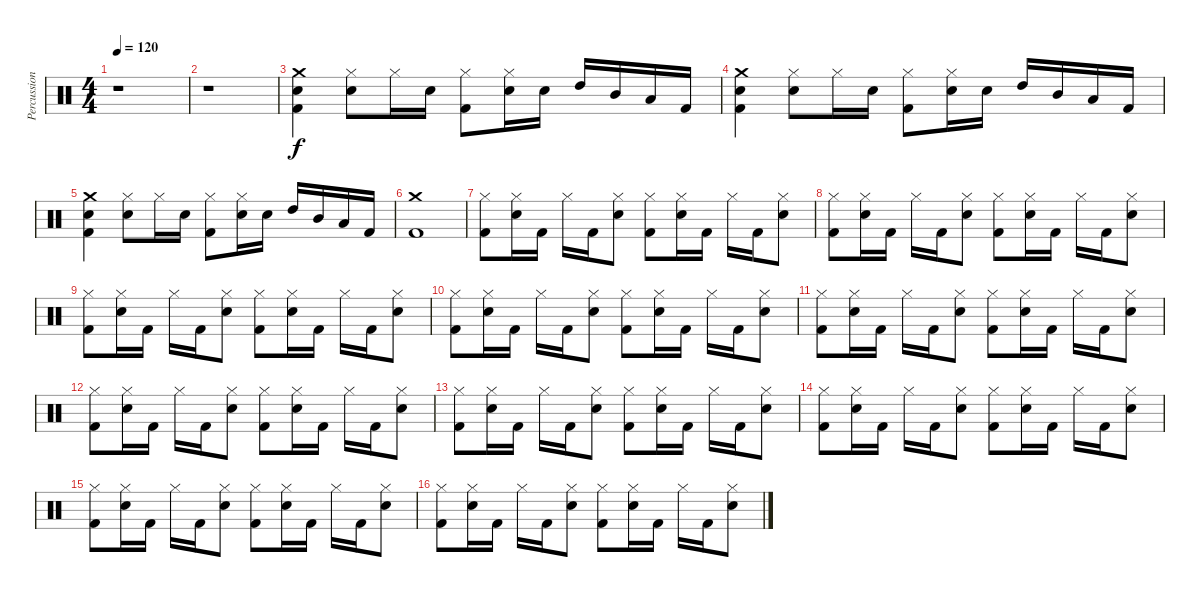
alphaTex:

\track ("Percussions" "Percussion") {instrument percussion}
\staff {score}
\articulation defaults
\ts (4 4)
\tempo 120
\clef neutral
\ks c
r.1{dy f} |
r.1 |
("Crash medium (hit)" "Snare (hit) 2" "Kick (hit) 2").4 ("Hi-Hat (closed)" "Snare (hit) 2").8 "Hi-Hat (closed)".16 "Snare (hit) 2".16 ("Hi-Hat (closed)" "Kick (hit) 2").8 ("Hi-Hat (closed)" "Snare (hit) 2").16 "Snare (hit) 2".16 "High Tom (hit)".16 "Mid Tom (hit)".16 "Low Tom (hit)".16 "Kick (hit) 2".16 |
("Crash medium (hit)" "Snare (hit) 2" "Kick (hit) 2").4 ("Hi-Hat (closed)" "Snare (hit) 2").8 "Hi-Hat (closed)".16 "Snare (hit) 2".16 ("Hi-Hat (closed)" "Kick (hit) 2").8 ("Hi-Hat (closed)" "Snare (hit) 2").16 "Snare (hit) 2".16 "High Tom (hit)".16 "Mid Tom (hit)".16 "Low Tom (hit)".16 "Kick (hit) 2".16 |
("Crash medium (hit)" "Snare (hit) 2" "Kick (hit) 2").4 ("Hi-Hat (closed)" "Snare (hit) 2").8 "Hi-Hat (closed)".16 "Snare (hit) 2".16 ("Hi-Hat (closed)" "Kick (hit) 2").8 ("Hi-Hat (closed)" "Snare (hit) 2").16 "Snare (hit) 2".16 "High Tom (hit)".16 "Mid Tom (hit)".16 "Low Tom (hit)".16 "Kick (hit) 2".16 |
("Crash medium (hit)" "Kick (hit) 2").1 |
("Hi-Hat (closed)" "Kick (hit) 2").8 ("Hi-Hat (closed)" "Snare (hit) 2").16 "Kick (hit) 2".16 "Hi-Hat (closed)".16 "Kick (hit) 2".16 ("Hi-Hat (closed)" "Snare (hit) 2").8 ("Hi-Hat (closed)" "Kick (hit) 2").8 ("Hi-Hat (closed)" "Snare (hit) 2").16 "Kick (hit) 2".16 "Hi-Hat (closed)".16 "Kick (hit) 2".16 ("Hi-Hat (closed)" "Snare (hit) 2").8 |
("Hi-Hat (closed)" "Kick (hit) 2").8 ("Hi-Hat (closed)" "Snare (hit) 2").16 "Kick (hit) 2".16 "Hi-Hat (closed)".16 "Kick (hit) 2".16 ("Hi-Hat (closed)" "Snare (hit) 2").8 ("Hi-Hat (closed)" "Kick (hit) 2").8 ("Hi-Hat (closed)" "Snare (hit) 2").16 "Kick (hit) 2".16 "Hi-Hat (closed)".16 "Kick (hit) 2".16 ("Hi-Hat (closed)" "Snare (hit) 2").8 |
("Hi-Hat (closed)" "Kick (hit) 2").8 ("Hi-Hat (closed)" "Snare (hit) 2").16 "Kick (hit) 2".16 "Hi-Hat (closed)".16 "Kick (hit) 2".16 ("Hi-Hat (closed)" "Snare (hit) 2").8 ("Hi-Hat (closed)" "Kick (hit) 2").8 ("Hi-Hat (closed)" "Snare (hit) 2").16 "Kick (hit) 2".16 "Hi-Hat (closed)".16 "Kick (hit) 2".16 ("Hi-Hat (closed)" "Snare (hit) 2").8 |
("Hi-Hat (closed)" "Kick (hit) 2").8 ("Hi-Hat (closed)" "Snare (hit) 2").16 "Kick (hit) 2".16 "Hi-Hat (closed)".16 "Kick (hit) 2".16 ("Hi-Hat (closed)" "Snare (hit) 2").8 ("Hi-Hat (closed)" "Kick (hit) 2").8 ("Hi-Hat (closed)" "Snare (hit) 2").16 "Kick (hit) 2".16 "Hi-Hat (closed)".16 "Kick (hit) 2".16 ("Hi-Hat (closed)" "Snare (hit) 2").8 |
("Hi-Hat (closed)" "Kick (hit) 2").8 ("Hi-Hat (closed)" "Snare (hit) 2").16 "Kick (hit) 2".16 "Hi-Hat (closed)".16 "Kick (hit) 2".16 ("Hi-Hat (closed)" "Snare (hit) 2").8 ("Hi-Hat (closed)" "Kick (hit) 2").8 ("Hi-Hat (closed)" "Snare (hit) 2").16 "Kick (hit) 2".16 "Hi-Hat (closed)".16 "Kick (hit) 2".16 ("Hi-Hat (closed)" "Snare (hit) 2").8 |
("Hi-Hat (closed)" "Kick (hit) 2").8 ("Hi-Hat (closed)" "Snare (hit) 2").16 "Kick (hit) 2".16 "Hi-Hat (closed)".16 "Kick (hit) 2".16 ("Hi-Hat (closed)" "Snare (hit) 2").8 ("Hi-Hat (closed)" "Kick (hit) 2").8 ("Hi-Hat (closed)" "Snare (hit) 2").16 "Kick (hit) 2".16 "Hi-Hat (closed)".16 "Kick (hit) 2".16 ("Hi-Hat (closed)" "Snare (hit) 2").8 |
("Hi-Hat (closed)" "Kick (hit) 2").8 ("Hi-Hat (closed)" "Snare (hit) 2").16 "Kick (hit) 2".16 "Hi-Hat (closed)".16 "Kick (hit) 2".16 ("Hi-Hat (closed)" "Snare (hit) 2").8 ("Hi-Hat (closed)" "Kick (hit) 2").8 ("Hi-Hat (closed)" "Snare (hit) 2").16 "Kick (hit) 2".16 "Hi-Hat (closed)".16 "Kick (hit) 2".16 ("Hi-Hat (closed)" "Snare (hit) 2").8 |
("Hi-Hat (closed)" "Kick (hit) 2").8 ("Hi-Hat (closed)" "Snare (hit) 2").16 "Kick (hit) 2".16 "Hi-Hat (closed)".16 "Kick (hit) 2".16 ("Hi-Hat (closed)" "Snare (hit) 2").8 ("Hi-Hat (closed)" "Kick (hit) 2").8 ("Hi-Hat (closed)" "Snare (hit) 2").16 "Kick (hit) 2".16 "Hi-Hat (closed)".16 "Kick (hit) 2".16 ("Hi-Hat (closed)" "Snare (hit) 2").8 |
("Hi-Hat (closed)" "Kick (hit) 2").8 ("Hi-Hat (closed)" "Snare (hit) 2").16 "Kick (hit) 2".16 "Hi-Hat (closed)".16 "Kick (hit) 2".16 ("Hi-Hat (closed)" "Snare (hit) 2").8 ("Hi-Hat (closed)" "Kick (hit) 2").8 ("Hi-Hat (closed)" "Snare (hit) 2").16 "Kick (hit) 2".16 "Hi-Hat (closed)".16 "Kick (hit) 2".16 ("Hi-Hat (closed)" "Snare (hit) 2").8 |
("Hi-Hat (closed)" "Kick (hit) 2").8 ("Hi-Hat (closed)" "Snare (hit) 2").16 "Kick (hit) 2".16 "Hi-Hat (closed)".16 "Kick (hit) 2".16 ("Hi-Hat (closed)" "Snare (hit) 2").8 ("Hi-Hat (closed)" "Kick (hit) 2").8 ("Hi-Hat (closed)" "Snare (hit) 2").16 "Kick (hit) 2".16 "Hi-Hat (closed)".16 "Kick (hit) 2".16 ("Hi-Hat (closed)" "Snare (hit) 2").8
